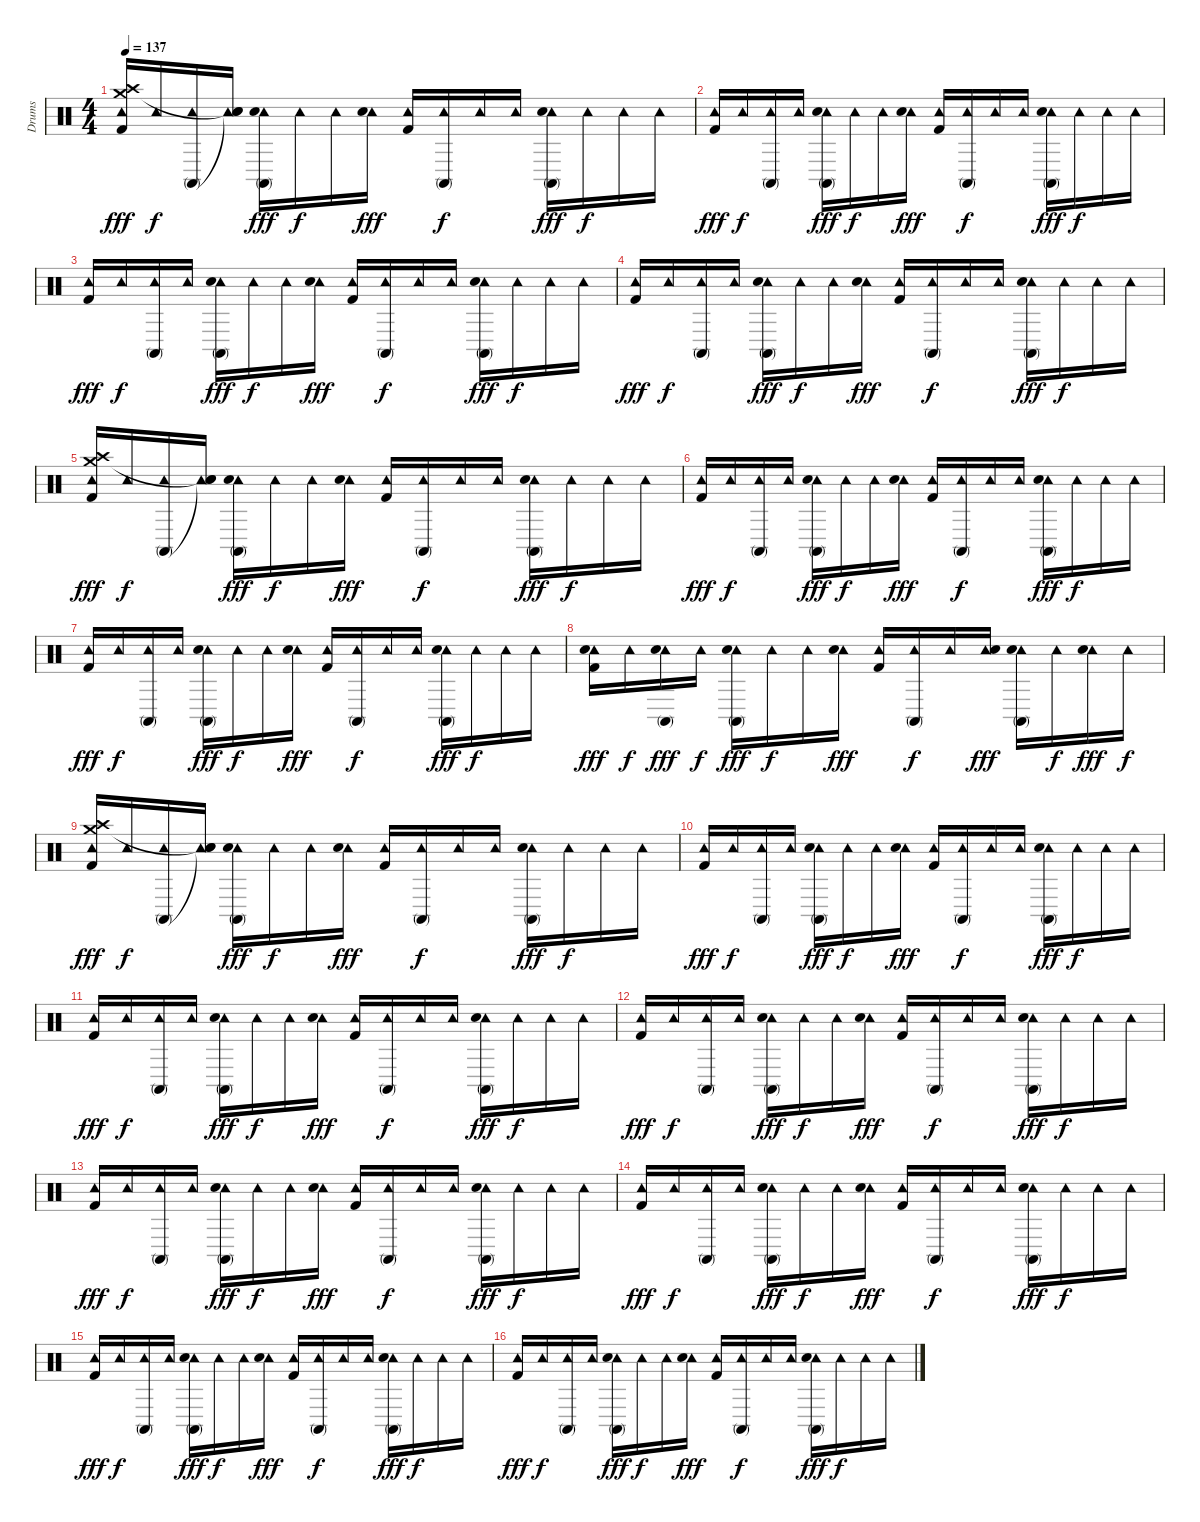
\track ("Drums" "Drums") {instrument percussion}
\staff {score}
\articulation defaults
\ts (4 4)
\tempo 137
\clef neutral
\ks c
("Tambourine (hit)" "Crash high (hit)" "Crash medium (hit)" "Kick (hit) 2").16{dy fff} "Tambourine (hit)".16{dy f} ("Tambourine (hit)" "Conga high (mute)").16 ("Tambourine (hit)" "Snare (hit)"{t} "Snare (hit)"{t}).16 ("Tambourine (hit)" "Conga high (mute)" "Electric Snare (hit)").16{dy fff} "Tambourine (hit)".16{dy f} "Tambourine (hit)".16 ("Tambourine (hit)" "Electric Snare (hit)").16{dy fff} ("Tambourine (hit)" "Kick (hit) 2").16 ("Tambourine (hit)" "Conga high (mute)").16{dy f} "Tambourine (hit)".16 "Tambourine (hit)".16 ("Tambourine (hit)" "Conga high (mute)" "Electric Snare (hit)").16{dy fff} "Tambourine (hit)".16{dy f} "Tambourine (hit)".16 "Tambourine (hit)".16 |
("Tambourine (hit)" "Kick (hit) 2").16{dy fff} "Tambourine (hit)".16{dy f} ("Tambourine (hit)" "Conga high (mute)").16 "Tambourine (hit)".16 ("Tambourine (hit)" "Conga high (mute)" "Electric Snare (hit)").16{dy fff} "Tambourine (hit)".16{dy f} "Tambourine (hit)".16 ("Tambourine (hit)" "Electric Snare (hit)").16{dy fff} ("Tambourine (hit)" "Kick (hit) 2").16 ("Tambourine (hit)" "Conga high (mute)").16{dy f} "Tambourine (hit)".16 "Tambourine (hit)".16 ("Tambourine (hit)" "Conga high (mute)" "Electric Snare (hit)").16{dy fff} "Tambourine (hit)".16{dy f} "Tambourine (hit)".16 "Tambourine (hit)".16 |
("Tambourine (hit)" "Kick (hit) 2").16{dy fff} "Tambourine (hit)".16{dy f} ("Tambourine (hit)" "Conga high (mute)").16 "Tambourine (hit)".16 ("Tambourine (hit)" "Conga high (mute)" "Electric Snare (hit)").16{dy fff} "Tambourine (hit)".16{dy f} "Tambourine (hit)".16 ("Tambourine (hit)" "Electric Snare (hit)").16{dy fff} ("Tambourine (hit)" "Kick (hit) 2").16 ("Tambourine (hit)" "Conga high (mute)").16{dy f} "Tambourine (hit)".16 "Tambourine (hit)".16 ("Tambourine (hit)" "Conga high (mute)" "Electric Snare (hit)").16{dy fff} "Tambourine (hit)".16{dy f} "Tambourine (hit)".16 "Tambourine (hit)".16 |
("Tambourine (hit)" "Kick (hit) 2").16{dy fff} "Tambourine (hit)".16{dy f} ("Tambourine (hit)" "Conga high (mute)").16 "Tambourine (hit)".16 ("Tambourine (hit)" "Conga high (mute)" "Electric Snare (hit)").16{dy fff} "Tambourine (hit)".16{dy f} "Tambourine (hit)".16 ("Tambourine (hit)" "Electric Snare (hit)").16{dy fff} ("Tambourine (hit)" "Kick (hit) 2").16 ("Tambourine (hit)" "Conga high (mute)").16{dy f} "Tambourine (hit)".16 "Tambourine (hit)".16 ("Tambourine (hit)" "Conga high (mute)" "Electric Snare (hit)").16{dy fff} "Tambourine (hit)".16{dy f} "Tambourine (hit)".16 "Tambourine (hit)".16 |
("Tambourine (hit)" "Crash high (hit)" "Crash medium (hit)" "Kick (hit) 2").16{dy fff} "Tambourine (hit)".16{dy f} ("Tambourine (hit)" "Conga high (mute)").16 ("Tambourine (hit)" "Snare (hit)"{t} "Snare (hit)"{t}).16 ("Tambourine (hit)" "Conga high (mute)" "Electric Snare (hit)").16{dy fff} "Tambourine (hit)".16{dy f} "Tambourine (hit)".16 ("Tambourine (hit)" "Electric Snare (hit)").16{dy fff} ("Tambourine (hit)" "Kick (hit) 2").16 ("Tambourine (hit)" "Conga high (mute)").16{dy f} "Tambourine (hit)".16 "Tambourine (hit)".16 ("Tambourine (hit)" "Conga high (mute)" "Electric Snare (hit)").16{dy fff} "Tambourine (hit)".16{dy f} "Tambourine (hit)".16 "Tambourine (hit)".16 |
("Tambourine (hit)" "Kick (hit) 2").16{dy fff} "Tambourine (hit)".16{dy f} ("Tambourine (hit)" "Conga high (mute)").16 "Tambourine (hit)".16 ("Tambourine (hit)" "Conga high (mute)" "Electric Snare (hit)").16{dy fff} "Tambourine (hit)".16{dy f} "Tambourine (hit)".16 ("Tambourine (hit)" "Electric Snare (hit)").16{dy fff} ("Tambourine (hit)" "Kick (hit) 2").16 ("Tambourine (hit)" "Conga high (mute)").16{dy f} "Tambourine (hit)".16 "Tambourine (hit)".16 ("Tambourine (hit)" "Conga high (mute)" "Electric Snare (hit)").16{dy fff} "Tambourine (hit)".16{dy f} "Tambourine (hit)".16 "Tambourine (hit)".16 |
("Tambourine (hit)" "Kick (hit) 2").16{dy fff} "Tambourine (hit)".16{dy f} ("Tambourine (hit)" "Conga high (mute)").16 "Tambourine (hit)".16 ("Tambourine (hit)" "Conga high (mute)" "Electric Snare (hit)").16{dy fff} "Tambourine (hit)".16{dy f} "Tambourine (hit)".16 ("Tambourine (hit)" "Electric Snare (hit)").16{dy fff} ("Tambourine (hit)" "Kick (hit) 2").16 ("Tambourine (hit)" "Conga high (mute)").16{dy f} "Tambourine (hit)".16 "Tambourine (hit)".16 ("Tambourine (hit)" "Conga high (mute)" "Electric Snare (hit)").16{dy fff} "Tambourine (hit)".16{dy f} "Tambourine (hit)".16 "Tambourine (hit)".16 |
("Tambourine (hit)" "Electric Snare (hit)" "Kick (hit) 2").16{dy fff} "Tambourine (hit)".16{dy f} ("Tambourine (hit)" "Conga high (mute)" "Electric Snare (hit)").16{dy fff} "Tambourine (hit)".16{dy f} ("Tambourine (hit)" "Conga high (mute)" "Electric Snare (hit)").16{dy fff} "Tambourine (hit)".16{dy f} "Tambourine (hit)".16 ("Tambourine (hit)" "Electric Snare (hit)").16{dy fff} ("Tambourine (hit)" "Kick (hit) 2").16 ("Tambourine (hit)" "Conga high (mute)").16{dy f} "Tambourine (hit)".16 ("Tambourine (hit)" "Electric Snare (hit)").16{dy fff} ("Tambourine (hit)" "Conga high (mute)" "Electric Snare (hit)").16 "Tambourine (hit)".16{dy f} ("Tambourine (hit)" "Electric Snare (hit)").16{dy fff} "Tambourine (hit)".16{dy f} |
("Tambourine (hit)" "Crash high (hit)" "Crash medium (hit)" "Kick (hit) 2").16{dy fff} "Tambourine (hit)".16{dy f} ("Tambourine (hit)" "Conga high (mute)").16 ("Tambourine (hit)" "Snare (hit)"{t} "Snare (hit)"{t}).16 ("Tambourine (hit)" "Conga high (mute)" "Electric Snare (hit)").16{dy fff} "Tambourine (hit)".16{dy f} "Tambourine (hit)".16 ("Tambourine (hit)" "Electric Snare (hit)").16{dy fff} ("Tambourine (hit)" "Kick (hit) 2").16 ("Tambourine (hit)" "Conga high (mute)").16{dy f} "Tambourine (hit)".16 "Tambourine (hit)".16 ("Tambourine (hit)" "Conga high (mute)" "Electric Snare (hit)").16{dy fff} "Tambourine (hit)".16{dy f} "Tambourine (hit)".16 "Tambourine (hit)".16 |
("Tambourine (hit)" "Kick (hit) 2").16{dy fff} "Tambourine (hit)".16{dy f} ("Tambourine (hit)" "Conga high (mute)").16 "Tambourine (hit)".16 ("Tambourine (hit)" "Conga high (mute)" "Electric Snare (hit)").16{dy fff} "Tambourine (hit)".16{dy f} "Tambourine (hit)".16 ("Tambourine (hit)" "Electric Snare (hit)").16{dy fff} ("Tambourine (hit)" "Kick (hit) 2").16 ("Tambourine (hit)" "Conga high (mute)").16{dy f} "Tambourine (hit)".16 "Tambourine (hit)".16 ("Tambourine (hit)" "Conga high (mute)" "Electric Snare (hit)").16{dy fff} "Tambourine (hit)".16{dy f} "Tambourine (hit)".16 "Tambourine (hit)".16 |
("Tambourine (hit)" "Kick (hit) 2").16{dy fff} "Tambourine (hit)".16{dy f} ("Tambourine (hit)" "Conga high (mute)").16 "Tambourine (hit)".16 ("Tambourine (hit)" "Conga high (mute)" "Electric Snare (hit)").16{dy fff} "Tambourine (hit)".16{dy f} "Tambourine (hit)".16 ("Tambourine (hit)" "Electric Snare (hit)").16{dy fff} ("Tambourine (hit)" "Kick (hit) 2").16 ("Tambourine (hit)" "Conga high (mute)").16{dy f} "Tambourine (hit)".16 "Tambourine (hit)".16 ("Tambourine (hit)" "Conga high (mute)" "Electric Snare (hit)").16{dy fff} "Tambourine (hit)".16{dy f} "Tambourine (hit)".16 "Tambourine (hit)".16 |
("Tambourine (hit)" "Kick (hit) 2").16{dy fff} "Tambourine (hit)".16{dy f} ("Tambourine (hit)" "Conga high (mute)").16 "Tambourine (hit)".16 ("Tambourine (hit)" "Conga high (mute)" "Electric Snare (hit)").16{dy fff} "Tambourine (hit)".16{dy f} "Tambourine (hit)".16 ("Tambourine (hit)" "Electric Snare (hit)").16{dy fff} ("Tambourine (hit)" "Kick (hit) 2").16 ("Tambourine (hit)" "Conga high (mute)").16{dy f} "Tambourine (hit)".16 "Tambourine (hit)".16 ("Tambourine (hit)" "Conga high (mute)" "Electric Snare (hit)").16{dy fff} "Tambourine (hit)".16{dy f} "Tambourine (hit)".16 "Tambourine (hit)".16 |
("Tambourine (hit)" "Kick (hit) 2").16{dy fff} "Tambourine (hit)".16{dy f} ("Tambourine (hit)" "Conga high (mute)").16 "Tambourine (hit)".16 ("Tambourine (hit)" "Conga high (mute)" "Electric Snare (hit)").16{dy fff} "Tambourine (hit)".16{dy f} "Tambourine (hit)".16 ("Tambourine (hit)" "Electric Snare (hit)").16{dy fff} ("Tambourine (hit)" "Kick (hit) 2").16 ("Tambourine (hit)" "Conga high (mute)").16{dy f} "Tambourine (hit)".16 "Tambourine (hit)".16 ("Tambourine (hit)" "Conga high (mute)" "Electric Snare (hit)").16{dy fff} "Tambourine (hit)".16{dy f} "Tambourine (hit)".16 "Tambourine (hit)".16 |
("Tambourine (hit)" "Kick (hit) 2").16{dy fff} "Tambourine (hit)".16{dy f} ("Tambourine (hit)" "Conga high (mute)").16 "Tambourine (hit)".16 ("Tambourine (hit)" "Conga high (mute)" "Electric Snare (hit)").16{dy fff} "Tambourine (hit)".16{dy f} "Tambourine (hit)".16 ("Tambourine (hit)" "Electric Snare (hit)").16{dy fff} ("Tambourine (hit)" "Kick (hit) 2").16 ("Tambourine (hit)" "Conga high (mute)").16{dy f} "Tambourine (hit)".16 "Tambourine (hit)".16 ("Tambourine (hit)" "Conga high (mute)" "Electric Snare (hit)").16{dy fff} "Tambourine (hit)".16{dy f} "Tambourine (hit)".16 "Tambourine (hit)".16 |
("Tambourine (hit)" "Kick (hit) 2").16{dy fff} "Tambourine (hit)".16{dy f} ("Tambourine (hit)" "Conga high (mute)").16 "Tambourine (hit)".16 ("Tambourine (hit)" "Conga high (mute)" "Electric Snare (hit)").16{dy fff} "Tambourine (hit)".16{dy f} "Tambourine (hit)".16 ("Tambourine (hit)" "Electric Snare (hit)").16{dy fff} ("Tambourine (hit)" "Kick (hit) 2").16 ("Tambourine (hit)" "Conga high (mute)").16{dy f} "Tambourine (hit)".16 "Tambourine (hit)".16 ("Tambourine (hit)" "Conga high (mute)" "Electric Snare (hit)").16{dy fff} "Tambourine (hit)".16{dy f} "Tambourine (hit)".16 "Tambourine (hit)".16 |
("Tambourine (hit)" "Kick (hit) 2").16{dy fff} "Tambourine (hit)".16{dy f} ("Tambourine (hit)" "Conga high (mute)").16 "Tambourine (hit)".16 ("Tambourine (hit)" "Conga high (mute)" "Electric Snare (hit)").16{dy fff} "Tambourine (hit)".16{dy f} "Tambourine (hit)".16 ("Tambourine (hit)" "Electric Snare (hit)").16{dy fff} ("Tambourine (hit)" "Kick (hit) 2").16 ("Tambourine (hit)" "Conga high (mute)").16{dy f} "Tambourine (hit)".16 "Tambourine (hit)".16 ("Tambourine (hit)" "Conga high (mute)" "Electric Snare (hit)").16{dy fff} "Tambourine (hit)".16{dy f} "Tambourine (hit)".16 "Tambourine (hit)".16
